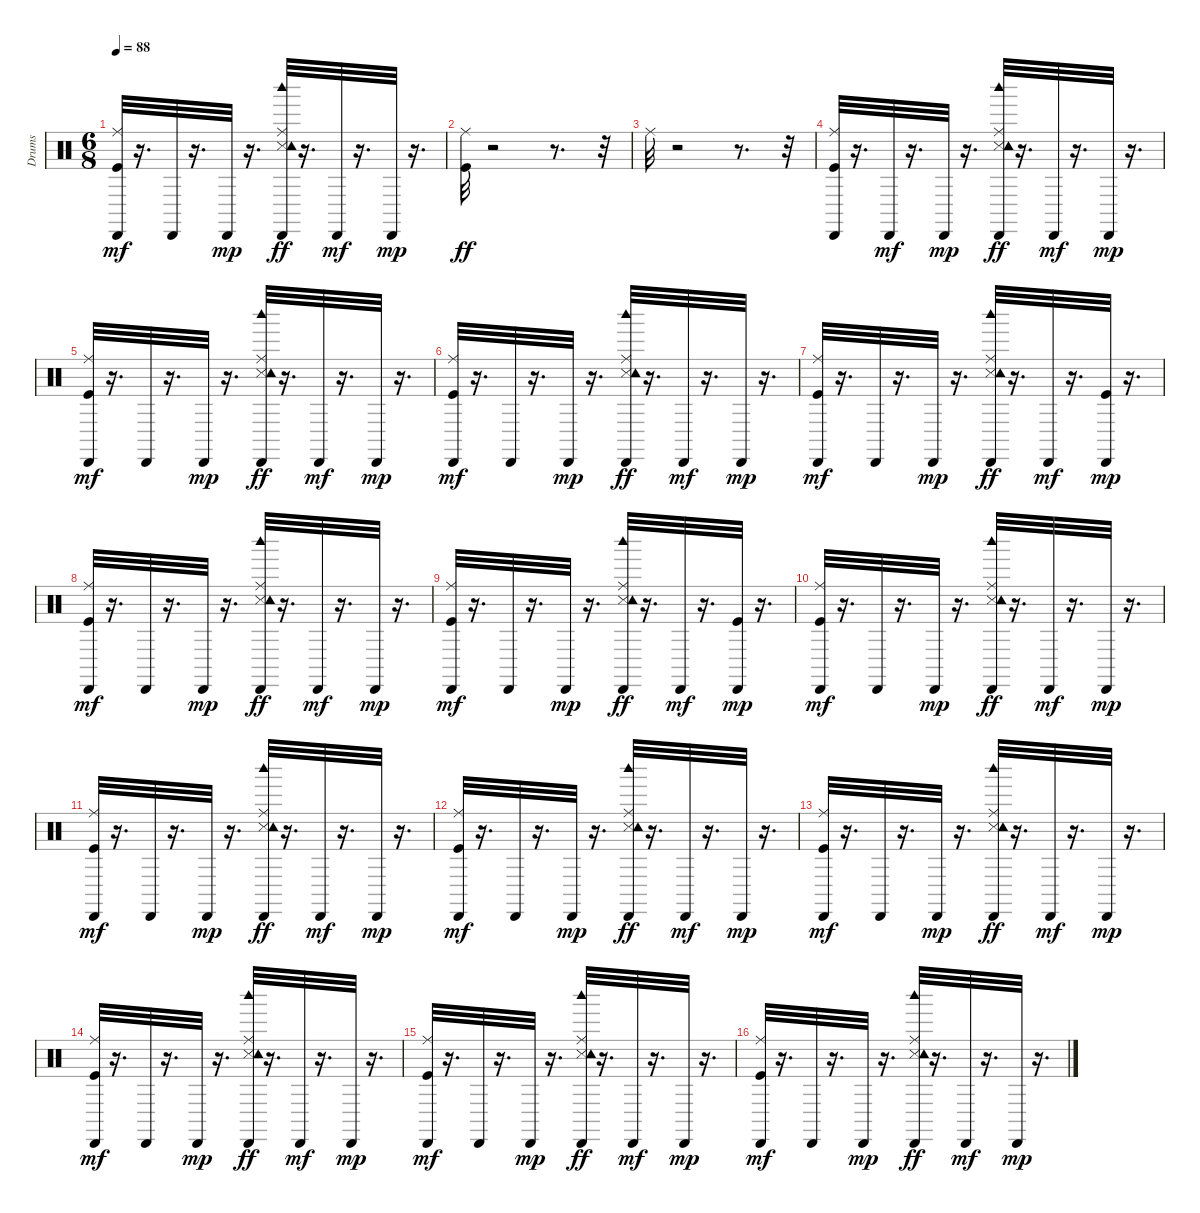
\track ("Drums               " "Drums     ") {instrument percussion}
\staff {score}
\articulation defaults
\ts (6 8)
\tempo 88
\clef neutral
\ks c
("Kick (hit)" "Ride (middle)" "Cabasa (hit)").32{dy mf} r.16{d} "Cabasa (hit)".32 r.16{d} "Cabasa (hit)".32{dy mp} r.16{d} ("Snare (side stick) 3" "Ride (middle)" "Tambourine (hit)" "Cabasa (hit)" "Woodblock high (hit)").32{dy ff} r.16{d} "Cabasa (hit)".32{dy mf} r.16{d} "Cabasa (hit)".32{dy mp} r.16{d} |
("Kick (hit)" "Ride (middle)").32{dy ff} r.2 r.8{d} r.32 |
"Ride (middle)".32 r.2 r.8{d} r.32 |
("Kick (hit)" "Ride (middle)" "Cabasa (hit)").32 r.16{d} "Cabasa (hit)".32{dy mf} r.16{d} "Cabasa (hit)".32{dy mp} r.16{d} ("Snare (side stick) 3" "Ride (middle)" "Tambourine (hit)" "Cabasa (hit)" "Woodblock high (hit)").32{dy ff} r.16{d} "Cabasa (hit)".32{dy mf} r.16{d} "Cabasa (hit)".32{dy mp} r.16{d} |
("Kick (hit)" "Ride (middle)" "Cabasa (hit)").32{dy mf} r.16{d} "Cabasa (hit)".32 r.16{d} "Cabasa (hit)".32{dy mp} r.16{d} ("Snare (side stick) 3" "Ride (middle)" "Tambourine (hit)" "Cabasa (hit)" "Woodblock high (hit)").32{dy ff} r.16{d} "Cabasa (hit)".32{dy mf} r.16{d} "Cabasa (hit)".32{dy mp} r.16{d} |
("Kick (hit)" "Ride (middle)" "Cabasa (hit)").32{dy mf} r.16{d} "Cabasa (hit)".32 r.16{d} "Cabasa (hit)".32{dy mp} r.16{d} ("Snare (side stick) 3" "Ride (middle)" "Tambourine (hit)" "Cabasa (hit)" "Woodblock high (hit)").32{dy ff} r.16{d} "Cabasa (hit)".32{dy mf} r.16{d} "Cabasa (hit)".32{dy mp} r.16{d} |
("Kick (hit)" "Ride (middle)" "Cabasa (hit)").32{dy mf} r.16{d} "Cabasa (hit)".32 r.16{d} "Cabasa (hit)".32{dy mp} r.16{d} ("Snare (side stick) 3" "Ride (middle)" "Tambourine (hit)" "Cabasa (hit)" "Woodblock high (hit)").32{dy ff} r.16{d} "Cabasa (hit)".32{dy mf} r.16{d} ("Kick (hit)" "Cabasa (hit)").32{dy mp} r.16{d} |
("Kick (hit)" "Ride (middle)" "Cabasa (hit)").32{dy mf} r.16{d} "Cabasa (hit)".32 r.16{d} "Cabasa (hit)".32{dy mp} r.16{d} ("Snare (side stick) 3" "Ride (middle)" "Tambourine (hit)" "Cabasa (hit)" "Woodblock high (hit)").32{dy ff} r.16{d} "Cabasa (hit)".32{dy mf} r.16{d} "Cabasa (hit)".32{dy mp} r.16{d} |
("Kick (hit)" "Ride (middle)" "Cabasa (hit)").32{dy mf} r.16{d} "Cabasa (hit)".32 r.16{d} "Cabasa (hit)".32{dy mp} r.16{d} ("Snare (side stick) 3" "Ride (middle)" "Tambourine (hit)" "Cabasa (hit)" "Woodblock high (hit)").32{dy ff} r.16{d} "Cabasa (hit)".32{dy mf} r.16{d} ("Kick (hit)" "Cabasa (hit)").32{dy mp} r.16{d} |
("Kick (hit)" "Ride (middle)" "Cabasa (hit)").32{dy mf} r.16{d} "Cabasa (hit)".32 r.16{d} "Cabasa (hit)".32{dy mp} r.16{d} ("Snare (side stick) 3" "Ride (middle)" "Tambourine (hit)" "Cabasa (hit)" "Woodblock high (hit)").32{dy ff} r.16{d} "Cabasa (hit)".32{dy mf} r.16{d} "Cabasa (hit)".32{dy mp} r.16{d} |
("Kick (hit)" "Ride (middle)" "Cabasa (hit)").32{dy mf} r.16{d} "Cabasa (hit)".32 r.16{d} "Cabasa (hit)".32{dy mp} r.16{d} ("Snare (side stick) 3" "Ride (middle)" "Tambourine (hit)" "Cabasa (hit)" "Woodblock high (hit)").32{dy ff} r.16{d} "Cabasa (hit)".32{dy mf} r.16{d} "Cabasa (hit)".32{dy mp} r.16{d} |
("Kick (hit)" "Ride (middle)" "Cabasa (hit)").32{dy mf} r.16{d} "Cabasa (hit)".32 r.16{d} "Cabasa (hit)".32{dy mp} r.16{d} ("Snare (side stick) 3" "Ride (middle)" "Tambourine (hit)" "Cabasa (hit)" "Woodblock high (hit)").32{dy ff} r.16{d} "Cabasa (hit)".32{dy mf} r.16{d} "Cabasa (hit)".32{dy mp} r.16{d} |
("Kick (hit)" "Ride (middle)" "Cabasa (hit)").32{dy mf} r.16{d} "Cabasa (hit)".32 r.16{d} "Cabasa (hit)".32{dy mp} r.16{d} ("Snare (side stick) 3" "Ride (middle)" "Tambourine (hit)" "Cabasa (hit)" "Woodblock high (hit)").32{dy ff} r.16{d} "Cabasa (hit)".32{dy mf} r.16{d} "Cabasa (hit)".32{dy mp} r.16{d} |
("Kick (hit)" "Ride (middle)" "Cabasa (hit)").32{dy mf} r.16{d} "Cabasa (hit)".32 r.16{d} "Cabasa (hit)".32{dy mp} r.16{d} ("Snare (side stick) 3" "Ride (middle)" "Tambourine (hit)" "Cabasa (hit)" "Woodblock high (hit)").32{dy ff} r.16{d} "Cabasa (hit)".32{dy mf} r.16{d} "Cabasa (hit)".32{dy mp} r.16{d} |
("Kick (hit)" "Ride (middle)" "Cabasa (hit)").32{dy mf} r.16{d} "Cabasa (hit)".32 r.16{d} "Cabasa (hit)".32{dy mp} r.16{d} ("Snare (side stick) 3" "Ride (middle)" "Tambourine (hit)" "Cabasa (hit)" "Woodblock high (hit)").32{dy ff} r.16{d} "Cabasa (hit)".32{dy mf} r.16{d} "Cabasa (hit)".32{dy mp} r.16{d} |
("Kick (hit)" "Ride (middle)" "Cabasa (hit)").32{dy mf} r.16{d} "Cabasa (hit)".32 r.16{d} "Cabasa (hit)".32{dy mp} r.16{d} ("Snare (side stick) 3" "Ride (middle)" "Tambourine (hit)" "Cabasa (hit)" "Woodblock high (hit)").32{dy ff} r.16{d} "Cabasa (hit)".32{dy mf} r.16{d} "Cabasa (hit)".32{dy mp} r.16{d}
